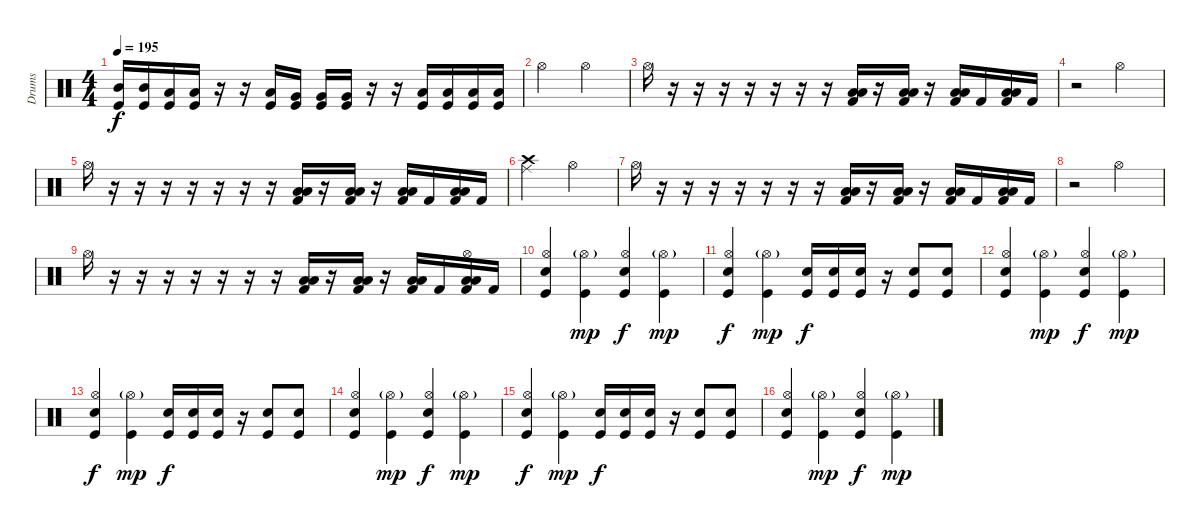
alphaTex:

\track ("Drums" "Drums") {instrument percussion}
\staff {score}
\articulation defaults
\ts (4 4)
\tempo 195
\clef neutral
\ks c
("Mid Tom (hit)" "Kick (hit)").16{dy f} ("Mid Tom (hit)" "Kick (hit)").16 ("Low Tom (hit)" "Kick (hit)").16 ("Low Tom (hit)" "Kick (hit)").16 r.16 r.16 ("Low Tom (hit)" "Kick (hit)").16 ("Very Low Tom (hit)" "Kick (hit)").16 ("Very Low Tom (hit)" "Kick (hit)").16 ("Very Low Tom (hit)" "Kick (hit)").16 r.16 r.16 ("Low Floor Tom (hit)" "Kick (hit)").16 ("Low Floor Tom (hit)" "Kick (hit)").16 ("Low Floor Tom (hit)" "Kick (hit)").16 ("Low Floor Tom (hit)" "Kick (hit)").16 |
"Hi-Hat (open)".2 "Hi-Hat (open)".2 |
"Hi-Hat (open)".16 r.16 r.16 r.16 r.16 r.16 r.16 r.16 ("Low Floor Tom (hit)" "Low Tom (hit)" "Kick (hit) 2").16 r.16 ("Low Floor Tom (hit)" "Low Tom (hit)" "Kick (hit) 2").16 r.16 ("Low Floor Tom (hit)" "Low Tom (hit)" "Kick (hit) 2").16 "Kick (hit) 2".16 ("Low Floor Tom (hit)" "Low Tom (hit)" "Kick (hit) 2").16 "Kick (hit) 2".16 |
r.2 "Hi-Hat (open)".2 |
"Hi-Hat (open)".16 r.16 r.16 r.16 r.16 r.16 r.16 r.16 ("Low Floor Tom (hit)" "Low Tom (hit)" "Kick (hit) 2").16 r.16 ("Low Floor Tom (hit)" "Low Tom (hit)" "Kick (hit) 2").16 r.16 ("Low Floor Tom (hit)" "Low Tom (hit)" "Kick (hit) 2").16 "Kick (hit) 2".16 ("Low Floor Tom (hit)" "Low Tom (hit)" "Kick (hit) 2").16 "Kick (hit) 2".16 |
("Crash high (hit)" "Ride (middle)").2 "Hi-Hat (open)".2 |
"Hi-Hat (open)".16 r.16 r.16 r.16 r.16 r.16 r.16 r.16 ("Low Floor Tom (hit)" "Low Tom (hit)" "Kick (hit) 2").16 r.16 ("Low Floor Tom (hit)" "Low Tom (hit)" "Kick (hit) 2").16 r.16 ("Low Floor Tom (hit)" "Low Tom (hit)" "Kick (hit) 2").16 "Kick (hit) 2".16 ("Low Floor Tom (hit)" "Low Tom (hit)" "Kick (hit) 2").16 "Kick (hit) 2".16 |
r.2 "Hi-Hat (open)".2 |
"Hi-Hat (open)".16 r.16 r.16 r.16 r.16 r.16 r.16 r.16 ("Low Floor Tom (hit)" "Low Tom (hit)" "Kick (hit) 2").16 r.16 ("Low Floor Tom (hit)" "Low Tom (hit)" "Kick (hit) 2").16 r.16 ("Low Floor Tom (hit)" "Low Tom (hit)" "Kick (hit) 2").16 "Kick (hit) 2".16 ("Hi-Hat (open)" "Low Floor Tom (hit)" "Low Tom (hit)" "Kick (hit) 2").16 "Kick (hit) 2".16 |
("Hi-Hat (open)" "Electric Snare (hit)" "Kick (hit)").4 ("Hi-Hat (open)"{g} "Kick (hit)").4{dy mp} ("Hi-Hat (open)" "Electric Snare (hit)" "Kick (hit)").4{dy f} ("Hi-Hat (open)"{g} "Kick (hit)").4{dy mp} |
("Hi-Hat (open)" "Electric Snare (hit)" "Kick (hit)").4{dy f} ("Hi-Hat (open)"{g} "Kick (hit)").4{dy mp} ("Electric Snare (hit)" "Kick (hit)").16{dy f} ("Electric Snare (hit)" "Kick (hit)").16 ("Electric Snare (hit)" "Kick (hit)").16 r.16 ("Electric Snare (hit)" "Kick (hit)").8 ("Electric Snare (hit)" "Kick (hit)").8 |
("Hi-Hat (open)" "Electric Snare (hit)" "Kick (hit)").4 ("Hi-Hat (open)"{g} "Kick (hit)").4{dy mp} ("Hi-Hat (open)" "Electric Snare (hit)" "Kick (hit)").4{dy f} ("Hi-Hat (open)"{g} "Kick (hit)").4{dy mp} |
("Hi-Hat (open)" "Electric Snare (hit)" "Kick (hit)").4{dy f} ("Hi-Hat (open)"{g} "Kick (hit)").4{dy mp} ("Electric Snare (hit)" "Kick (hit)").16{dy f} ("Electric Snare (hit)" "Kick (hit)").16 ("Electric Snare (hit)" "Kick (hit)").16 r.16 ("Electric Snare (hit)" "Kick (hit)").8 ("Electric Snare (hit)" "Kick (hit)").8 |
("Hi-Hat (open)" "Electric Snare (hit)" "Kick (hit)").4 ("Hi-Hat (open)"{g} "Kick (hit)").4{dy mp} ("Hi-Hat (open)" "Electric Snare (hit)" "Kick (hit)").4{dy f} ("Hi-Hat (open)"{g} "Kick (hit)").4{dy mp} |
("Hi-Hat (open)" "Electric Snare (hit)" "Kick (hit)").4{dy f} ("Hi-Hat (open)"{g} "Kick (hit)").4{dy mp} ("Electric Snare (hit)" "Kick (hit)").16{dy f} ("Electric Snare (hit)" "Kick (hit)").16 ("Electric Snare (hit)" "Kick (hit)").16 r.16 ("Electric Snare (hit)" "Kick (hit)").8 ("Electric Snare (hit)" "Kick (hit)").8 |
("Hi-Hat (open)" "Electric Snare (hit)" "Kick (hit)").4 ("Hi-Hat (open)"{g} "Kick (hit)").4{dy mp} ("Hi-Hat (open)" "Electric Snare (hit)" "Kick (hit)").4{dy f} ("Hi-Hat (open)"{g} "Kick (hit)").4{dy mp}
